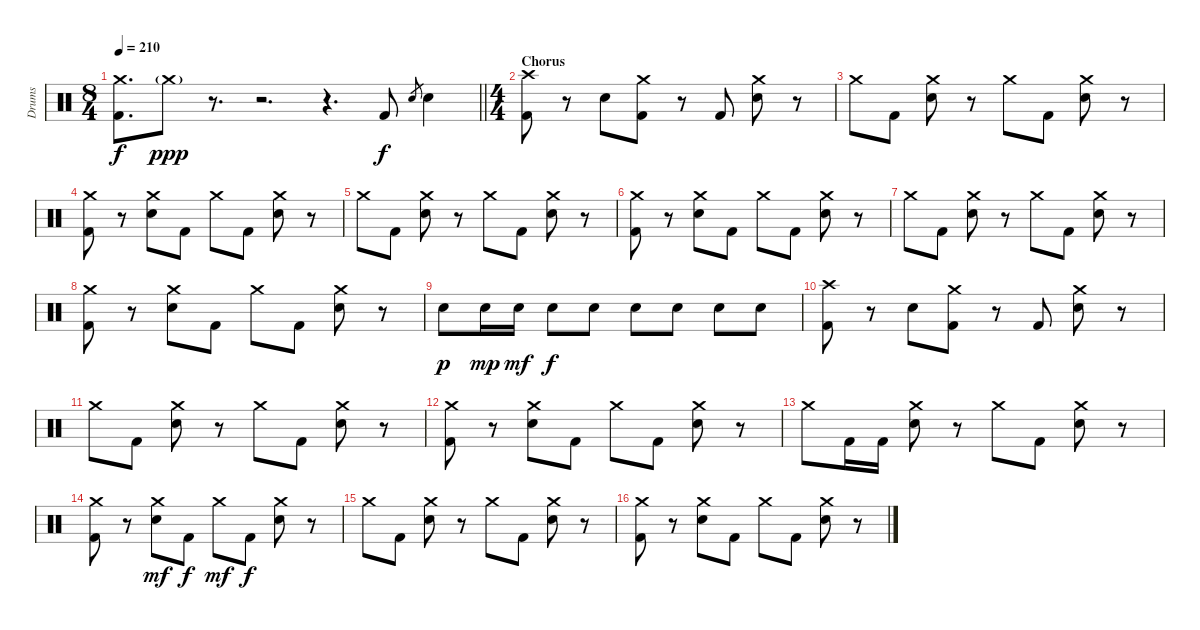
\track ("Drums" "Drums") {instrument percussion}
\staff {score}
\articulation defaults
\ts (8 4)
\tempo 210
\clef neutral
\barLineRight lightlight
\ks c
("Crash medium (hit)" "Kick (hit) 2").8{d dy f} "Crash medium (hit)"{g}.8{dy ppp} r.8{d} r.2{d} r.4{d} "Kick (hit) 2".8{dy f} "Electric Snare (hit)".8{gr} "Electric Snare (hit)".4 |
\ts (4 4)
\section ("" "Chorus")
("Crash high (hit)" "Kick (hit) 2").8 r.8 "Electric Snare (hit)".8 ("Crash medium (hit)" "Kick (hit) 2").8 r.8 "Kick (hit) 2".8 ("Crash medium (hit)" "Electric Snare (hit)").8 r.8 |
"Crash medium (hit)".8 "Kick (hit) 2".8 ("Crash medium (hit)" "Electric Snare (hit)").8 r.8 "Crash medium (hit)".8 "Kick (hit) 2".8 ("Crash medium (hit)" "Electric Snare (hit)").8 r.8 |
("Crash medium (hit)" "Kick (hit) 2").8 r.8 ("Crash medium (hit)" "Electric Snare (hit)").8 "Kick (hit) 2".8 "Crash medium (hit)".8 "Kick (hit) 2".8 ("Crash medium (hit)" "Electric Snare (hit)").8 r.8 |
"Crash medium (hit)".8 "Kick (hit) 2".8 ("Crash medium (hit)" "Electric Snare (hit)").8 r.8 "Crash medium (hit)".8 "Kick (hit) 2".8 ("Crash medium (hit)" "Electric Snare (hit)").8 r.8 |
("Crash medium (hit)" "Kick (hit) 2").8 r.8 ("Crash medium (hit)" "Electric Snare (hit)").8 "Kick (hit) 2".8 "Crash medium (hit)".8 "Kick (hit) 2".8 ("Crash medium (hit)" "Electric Snare (hit)").8 r.8 |
"Crash medium (hit)".8 "Kick (hit) 2".8 ("Crash medium (hit)" "Electric Snare (hit)").8 r.8 "Crash medium (hit)".8 "Kick (hit) 2".8 ("Crash medium (hit)" "Electric Snare (hit)").8 r.8 |
("Crash medium (hit)" "Kick (hit) 2").8 r.8 ("Crash medium (hit)" "Electric Snare (hit)").8 "Kick (hit) 2".8 "Crash medium (hit)".8 "Kick (hit) 2".8 ("Crash medium (hit)" "Electric Snare (hit)").8 r.8 |
"Electric Snare (hit)".8{dy p} "Electric Snare (hit)".16{dy mp} "Electric Snare (hit)".16{dy mf} "Electric Snare (hit)".8{dy f} "Electric Snare (hit)".8 "Electric Snare (hit)".8 "Electric Snare (hit)".8 "Electric Snare (hit)".8 "Electric Snare (hit)".8 |
("Crash high (hit)" "Kick (hit) 2").8 r.8 "Electric Snare (hit)".8 ("Crash medium (hit)" "Kick (hit) 2").8 r.8 "Kick (hit) 2".8 ("Crash medium (hit)" "Electric Snare (hit)").8 r.8 |
"Crash medium (hit)".8 "Kick (hit) 2".8 ("Crash medium (hit)" "Electric Snare (hit)").8 r.8 "Crash medium (hit)".8 "Kick (hit) 2".8 ("Crash medium (hit)" "Electric Snare (hit)").8 r.8 |
("Crash medium (hit)" "Kick (hit) 2").8 r.8 ("Crash medium (hit)" "Electric Snare (hit)").8 "Kick (hit) 2".8 "Crash medium (hit)".8 "Kick (hit) 2".8 ("Crash medium (hit)" "Electric Snare (hit)").8 r.8 |
"Crash medium (hit)".8 "Kick (hit) 2".16 "Kick (hit) 2".16 ("Crash medium (hit)" "Electric Snare (hit)").8 r.8 "Crash medium (hit)".8 "Kick (hit) 2".8 ("Crash medium (hit)" "Electric Snare (hit)").8 r.8 |
("Crash medium (hit)" "Kick (hit) 2").8 r.8 ("Crash medium (hit)" "Electric Snare (hit)").8{dy mf} "Kick (hit) 2".8{dy f} "Crash medium (hit)".8{dy mf} "Kick (hit) 2".8{dy f} ("Crash medium (hit)" "Electric Snare (hit)").8 r.8 |
"Crash medium (hit)".8 "Kick (hit) 2".8 ("Crash medium (hit)" "Electric Snare (hit)").8 r.8 "Crash medium (hit)".8 "Kick (hit) 2".8 ("Crash medium (hit)" "Electric Snare (hit)").8 r.8 |
("Crash medium (hit)" "Kick (hit) 2").8 r.8 ("Crash medium (hit)" "Electric Snare (hit)").8 "Kick (hit) 2".8 "Crash medium (hit)".8 "Kick (hit) 2".8 ("Crash medium (hit)" "Electric Snare (hit)").8 r.8
